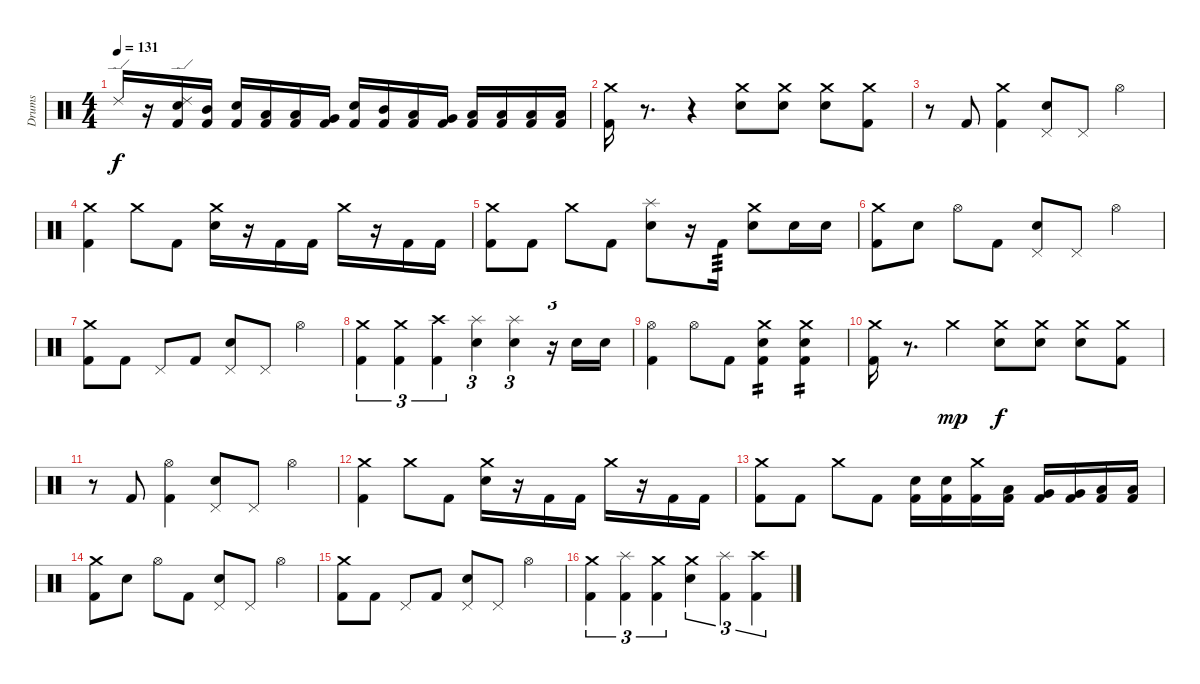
\track ("Drums" "Drums") {instrument percussion}
\staff {score}
\articulation defaults
\ts (4 4)
\tempo 131
\clef neutral
\ks c "Ride (edge) 2".16{dy f}
r.16 ("Ride (edge) 2" "Electric Snare (hit)" "Kick (hit) 2").16 ("Mid Tom (hit)" "Kick (hit) 2").16 ("Electric Snare (hit)" "Kick (hit) 2").16 ("Low Tom (hit)" "Kick (hit) 2").16 ("Low Tom (hit)" "Kick (hit) 2").16 ("Very Low Tom (hit)" "Kick (hit) 2").16 ("Electric Snare (hit)" "Kick (hit) 2").16 ("Mid Tom (hit)" "Kick (hit) 2").16 ("Low Tom (hit)" "Kick (hit) 2").16 ("Very Low Tom (hit)" "Kick (hit) 2").16 ("Low Floor Tom (hit)" "Kick (hit) 2").16 ("Low Floor Tom (hit)" "Kick (hit) 2").16 ("Low Floor Tom (hit)" "Kick (hit) 2").16 ("Low Floor Tom (hit)" "Kick (hit) 2").16 |
("Crash medium (hit)" "Kick (hit) 2").16 r.8{d volume 0} r.4 ("Crash medium (hit)" "Electric Snare (hit)").8{volume 16} ("Crash medium (hit)" "Electric Snare (hit)").8 ("Crash medium (hit)" "Electric Snare (hit)").8 ("Crash medium (hit)" "Kick (hit) 2").8 |
r.8 "Kick (hit) 2".8 ("Crash medium (hit)" "Kick (hit) 2").4 ("Pedal Hi-Hat (hit)" "Electric Snare (hit)").8 "Pedal Hi-Hat (hit)".8 "Hi-Hat (open)".4 |
("Crash medium (hit)" "Kick (hit) 2").4 "Crash medium (hit)".8 "Kick (hit) 2".8 ("Crash medium (hit)" "Electric Snare (hit)").16 r.16 "Kick (hit) 2".16 "Kick (hit) 2".16 "Crash medium (hit)".16 r.16 "Kick (hit) 2".16 "Kick (hit) 2".16 |
("Crash medium (hit)" "Kick (hit) 2").8 "Kick (hit) 2".8 "Crash medium (hit)".8 "Kick (hit) 2".8 ("Splash (hit)" "Electric Snare (hit)").8 r.16 "Kick (hit) 2".16{tp 3} ("Crash medium (hit)" "Electric Snare (hit)").8 "Electric Snare (hit)".16 "Electric Snare (hit)".16 |
("Crash medium (hit)" "Kick (hit) 2").8 "Electric Snare (hit)".8 "Hi-Hat (open)".8 "Kick (hit) 2".8 ("Pedal Hi-Hat (hit)" "Electric Snare (hit)").8 "Pedal Hi-Hat (hit)".8 "Hi-Hat (open)".4 |
("Crash medium (hit)" "Kick (hit) 2").8 "Kick (hit) 2".8 "Pedal Hi-Hat (hit)".8 "Kick (hit) 2".8 ("Pedal Hi-Hat (hit)" "Electric Snare (hit)").8 "Pedal Hi-Hat (hit)".8 "Hi-Hat (open)".4 |
("Crash medium (hit)" "Kick (hit) 2").4{tu (3 2)} ("Crash medium (hit)" "Kick (hit) 2").4{tu (3 2)} ("Crash high (hit)" "Kick (hit) 2").4{tu (3 2)} ("Splash (hit)" "Electric Snare (hit)").4{tu (3 2)} ("Splash (hit)" "Electric Snare (hit)").4{tu (3 2)} r.16{tu (3 2)} "Electric Snare (hit)".16 "Electric Snare (hit)".16 |
("Hi-Hat (open)" "Kick (hit) 2").4 "Hi-Hat (open)".8 "Kick (hit) 2".8 ("Crash medium (hit)" "Electric Snare (hit)" "Kick (hit) 2").4{tp 2} ("Crash medium (hit)" "Electric Snare (hit)" "Kick (hit) 2").4{tp 2} |
("Crash medium (hit)" "Kick (hit) 2").16 r.8{d volume 0} "Crash medium (hit)".4{dy mp volume 16} ("Crash medium (hit)" "Electric Snare (hit)").8{dy f} ("Crash medium (hit)" "Electric Snare (hit)").8 ("Crash medium (hit)" "Electric Snare (hit)").8 ("Crash medium (hit)" "Kick (hit) 2").8 |
r.8 "Kick (hit) 2".8 ("Hi-Hat (open)" "Kick (hit) 2").4 ("Pedal Hi-Hat (hit)" "Electric Snare (hit)").8 "Pedal Hi-Hat (hit)".8 "Hi-Hat (open)".4 |
("Crash medium (hit)" "Kick (hit) 2").4 "Crash medium (hit)".8 "Kick (hit) 2".8 ("Crash medium (hit)" "Electric Snare (hit)").16 r.16 "Kick (hit) 2".16 "Kick (hit) 2".16 "Crash medium (hit)".16 r.16 "Kick (hit) 2".16 "Kick (hit) 2".16 |
("Crash medium (hit)" "Kick (hit) 2").8 "Kick (hit) 2".8 "Crash medium (hit)".8 "Kick (hit) 2".8 ("Electric Snare (hit)" "Kick (hit) 2").16 ("Electric Snare (hit)" "Kick (hit) 2").16 ("Crash medium (hit)" "Kick (hit) 2").16 ("Low Tom (hit)" "Kick (hit) 2").16 ("Very Low Tom (hit)" "Kick (hit) 2").16 ("Very Low Tom (hit)" "Kick (hit) 2").16 ("Low Floor Tom (hit)" "Kick (hit) 2").16 ("Low Floor Tom (hit)" "Kick (hit) 2").16 |
("Crash medium (hit)" "Kick (hit) 2").8 "Electric Snare (hit)".8 "Hi-Hat (open)".8 "Kick (hit) 2".8 ("Pedal Hi-Hat (hit)" "Electric Snare (hit)").8 "Pedal Hi-Hat (hit)".8 "Hi-Hat (open)".4 |
("Crash medium (hit)" "Kick (hit) 2").8 "Kick (hit) 2".8 "Pedal Hi-Hat (hit)".8 "Kick (hit) 2".8 ("Pedal Hi-Hat (hit)" "Electric Snare (hit)").8 "Pedal Hi-Hat (hit)".8 "Hi-Hat (open)".4 |
("Crash medium (hit)" "Kick (hit) 2").4{tu (3 2)} ("Splash (hit)" "Kick (hit) 2").4{tu (3 2)} ("Crash medium (hit)" "Kick (hit) 2").4{tu (3 2)} ("Crash medium (hit)" "Electric Snare (hit)").4{tu (3 2)} ("Splash (hit)" "Kick (hit) 2").4{tu (3 2)} ("Crash high (hit)" "Kick (hit) 2").4{tu (3 2)}
